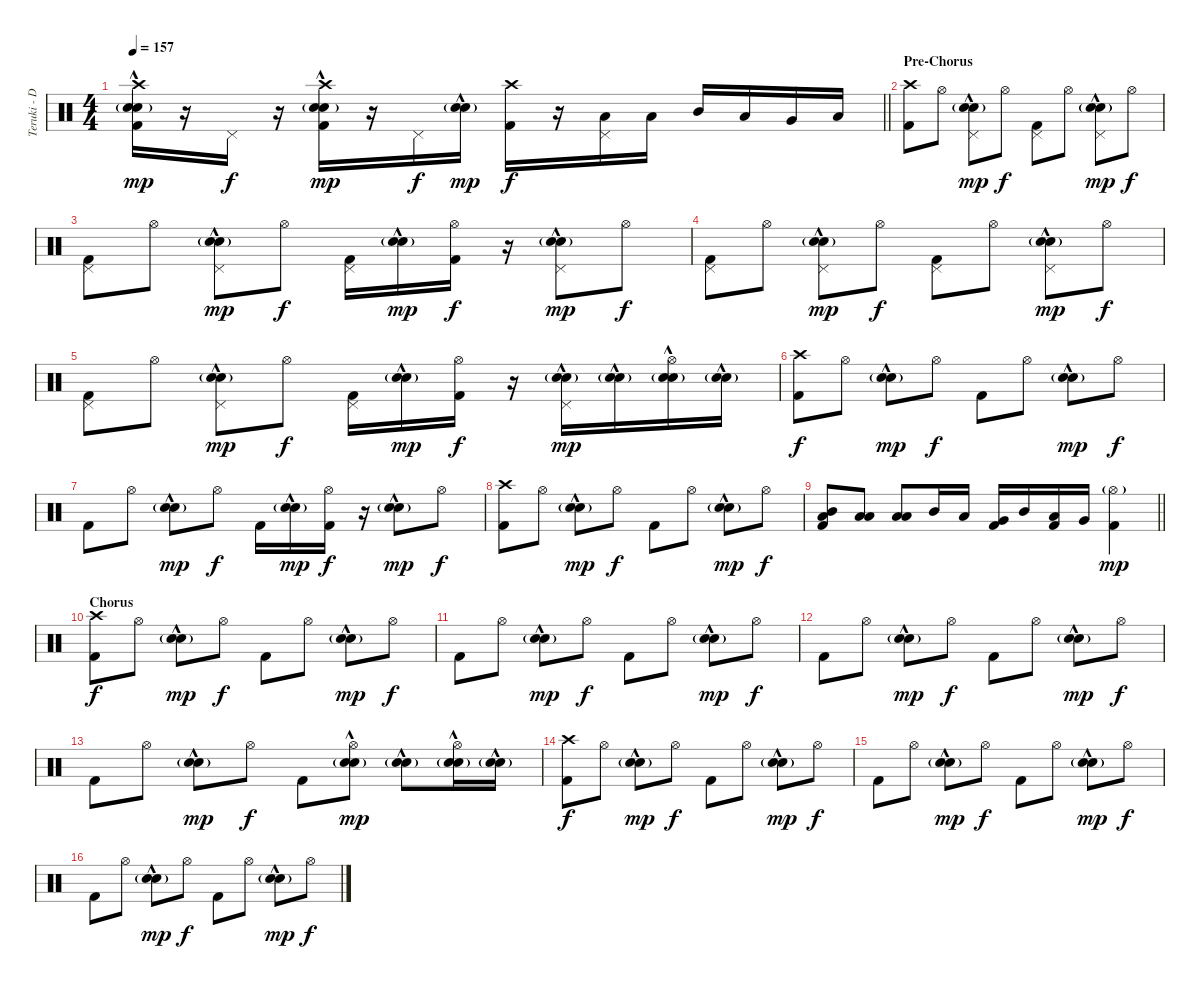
\track ("Teruki - Drums" "Teruki - D") {instrument percussion}
\staff {score}
\articulation defaults
\ts (4 4)
\tempo 157
\clef neutral
\barLineRight lightlight
\ks c
("Crash high (hit)" "Electric Snare (hit)"{hac} "Snare (hit) 2"{g} "Kick (hit) 2").16{dy mp} r.16 "Pedal Hi-Hat (hit)".16{dy f} r.16 ("Crash high (hit)" "Electric Snare (hit)"{hac} "Snare (hit) 2"{g} "Kick (hit) 2").16{dy mp} r.16 "Pedal Hi-Hat (hit)".16{dy f} ("Electric Snare (hit)"{hac} "Snare (hit) 2"{g}).16{dy mp} ("Crash high (hit)" "Kick (hit) 2").16{dy f} r.16 ("Pedal Hi-Hat (hit)" "Low Tom (hit)").16 "Low Tom (hit)".16 "Mid Tom (hit)".16 "Low Tom (hit)".16 "Very Low Tom (hit)".16 "Low Floor Tom (hit)".16 |
\section ("" "Pre-Chorus")
("Crash high (hit)" "Kick (hit) 2").8 "Hi-Hat (open)".8 ("Pedal Hi-Hat (hit)" "Electric Snare (hit)"{hac} "Snare (hit) 2"{g}).8{dy mp} "Hi-Hat (open)".8{dy f} ("Pedal Hi-Hat (hit)" "Kick (hit) 2").8 "Hi-Hat (open)".8 ("Pedal Hi-Hat (hit)" "Electric Snare (hit)"{hac} "Snare (hit) 2"{g}).8{dy mp} "Hi-Hat (open)".8{dy f} |
("Pedal Hi-Hat (hit)" "Kick (hit) 2").8 "Hi-Hat (open)".8 ("Pedal Hi-Hat (hit)" "Electric Snare (hit)"{hac} "Snare (hit) 2"{g}).8{dy mp} "Hi-Hat (open)".8{dy f} ("Pedal Hi-Hat (hit)" "Kick (hit) 2").16 ("Electric Snare (hit)"{hac} "Snare (hit) 2"{g}).16{dy mp} ("Hi-Hat (open)" "Kick (hit) 2").16{dy f} r.16 ("Pedal Hi-Hat (hit)" "Electric Snare (hit)"{hac} "Snare (hit) 2"{g}).8{dy mp} "Hi-Hat (open)".8{dy f} |
("Pedal Hi-Hat (hit)" "Kick (hit) 2").8 "Hi-Hat (open)".8 ("Pedal Hi-Hat (hit)" "Electric Snare (hit)"{hac} "Snare (hit) 2"{g}).8{dy mp} "Hi-Hat (open)".8{dy f} ("Pedal Hi-Hat (hit)" "Kick (hit) 2").8 "Hi-Hat (open)".8 ("Pedal Hi-Hat (hit)" "Electric Snare (hit)"{hac} "Snare (hit) 2"{g}).8{dy mp} "Hi-Hat (open)".8{dy f} |
("Pedal Hi-Hat (hit)" "Kick (hit) 2").8 "Hi-Hat (open)".8 ("Pedal Hi-Hat (hit)" "Electric Snare (hit)"{hac} "Snare (hit) 2"{g}).8{dy mp} "Hi-Hat (open)".8{dy f} ("Pedal Hi-Hat (hit)" "Kick (hit) 2").16 ("Electric Snare (hit)"{hac} "Snare (hit) 2"{g}).16{dy mp} ("Hi-Hat (open)" "Kick (hit) 2").16{dy f} r.16 ("Pedal Hi-Hat (hit)" "Electric Snare (hit)"{hac} "Snare (hit) 2"{g}).16{dy mp} ("Electric Snare (hit)"{hac} "Snare (hit) 2"{g}).16 ("Hi-Hat (open)" "Electric Snare (hit)"{hac} "Snare (hit) 2"{g}).16 ("Electric Snare (hit)"{hac} "Snare (hit) 2"{g}).16 |
("Crash high (hit)" "Kick (hit) 2").8{dy f} "Hi-Hat (open)".8 ("Electric Snare (hit)"{hac} "Snare (hit) 2"{g}).8{dy mp} "Hi-Hat (open)".8{dy f} "Kick (hit) 2".8 "Hi-Hat (open)".8 ("Electric Snare (hit)"{hac} "Snare (hit) 2"{g}).8{dy mp} "Hi-Hat (open)".8{dy f} |
"Kick (hit) 2".8 "Hi-Hat (open)".8 ("Electric Snare (hit)"{hac} "Snare (hit) 2"{g}).8{dy mp} "Hi-Hat (open)".8{dy f} "Kick (hit) 2".16 ("Electric Snare (hit)"{hac} "Snare (hit) 2"{g}).16{dy mp} ("Hi-Hat (open)" "Kick (hit) 2").16{dy f} r.16 ("Electric Snare (hit)"{hac} "Snare (hit) 2"{g}).8{dy mp} "Hi-Hat (open)".8{dy f} |
("Crash high (hit)" "Kick (hit) 2").8 "Hi-Hat (open)".8 ("Electric Snare (hit)"{hac} "Snare (hit) 2"{g}).8{dy mp} "Hi-Hat (open)".8{dy f} "Kick (hit) 2".8 "Hi-Hat (open)".8 ("Electric Snare (hit)"{hac} "Snare (hit) 2"{g}).8{dy mp} "Hi-Hat (open)".8{dy f} |
\barLineRight lightlight
("Mid Tom (hit)" "Low Tom (hit)" "Kick (hit) 2").8 ("Low Tom (hit)" "Low Floor Tom (hit)").8 ("Low Tom (hit)" "Low Floor Tom (hit)").8 "Mid Tom (hit)".16 "Low Tom (hit)".16 ("Very Low Tom (hit)" "Kick (hit) 2").16 "Mid Tom (hit)".16 ("Low Tom (hit)" "Kick (hit) 2").16 "Very Low Tom (hit)".16 ("Hi-Hat (open)"{g} "Kick (hit) 2").4{dy mp} |
\section ("" "Chorus")
("Crash high (hit)" "Kick (hit) 2").8{dy f} "Hi-Hat (open)".8 ("Electric Snare (hit)"{hac} "Snare (hit) 2"{g}).8{dy mp} "Hi-Hat (open)".8{dy f} "Kick (hit) 2".8 "Hi-Hat (open)".8 ("Electric Snare (hit)"{hac} "Snare (hit) 2"{g}).8{dy mp} "Hi-Hat (open)".8{dy f} |
"Kick (hit) 2".8 "Hi-Hat (open)".8 ("Electric Snare (hit)"{hac} "Snare (hit) 2"{g}).8{dy mp} "Hi-Hat (open)".8{dy f} "Kick (hit) 2".8 "Hi-Hat (open)".8 ("Electric Snare (hit)"{hac} "Snare (hit) 2"{g}).8{dy mp} "Hi-Hat (open)".8{dy f} |
"Kick (hit) 2".8 "Hi-Hat (open)".8 ("Electric Snare (hit)"{hac} "Snare (hit) 2"{g}).8{dy mp} "Hi-Hat (open)".8{dy f} "Kick (hit) 2".8 "Hi-Hat (open)".8 ("Electric Snare (hit)"{hac} "Snare (hit) 2"{g}).8{dy mp} "Hi-Hat (open)".8{dy f} |
"Kick (hit) 2".8 "Hi-Hat (open)".8 ("Electric Snare (hit)"{hac} "Snare (hit) 2"{g}).8{dy mp} "Hi-Hat (open)".8{dy f} "Kick (hit) 2".8 ("Hi-Hat (open)" "Electric Snare (hit)"{hac} "Snare (hit) 2"{g}).8{dy mp} ("Electric Snare (hit)"{hac} "Snare (hit) 2"{g}).8 ("Hi-Hat (open)" "Electric Snare (hit)"{hac} "Snare (hit) 2"{g}).16 ("Electric Snare (hit)"{hac} "Snare (hit) 2"{g}).16 |
("Crash high (hit)" "Kick (hit) 2").8{dy f} "Hi-Hat (open)".8 ("Electric Snare (hit)"{hac} "Snare (hit) 2"{g}).8{dy mp} "Hi-Hat (open)".8{dy f} "Kick (hit) 2".8 "Hi-Hat (open)".8 ("Electric Snare (hit)"{hac} "Snare (hit) 2"{g}).8{dy mp} "Hi-Hat (open)".8{dy f} |
"Kick (hit) 2".8 "Hi-Hat (open)".8 ("Electric Snare (hit)"{hac} "Snare (hit) 2"{g}).8{dy mp} "Hi-Hat (open)".8{dy f} "Kick (hit) 2".8 "Hi-Hat (open)".8 ("Electric Snare (hit)"{hac} "Snare (hit) 2"{g}).8{dy mp} "Hi-Hat (open)".8{dy f} |
"Kick (hit) 2".8 "Hi-Hat (open)".8 ("Electric Snare (hit)"{hac} "Snare (hit) 2"{g}).8{dy mp} "Hi-Hat (open)".8{dy f} "Kick (hit) 2".8 "Hi-Hat (open)".8 ("Electric Snare (hit)"{hac} "Snare (hit) 2"{g}).8{dy mp} "Hi-Hat (open)".8{dy f}
